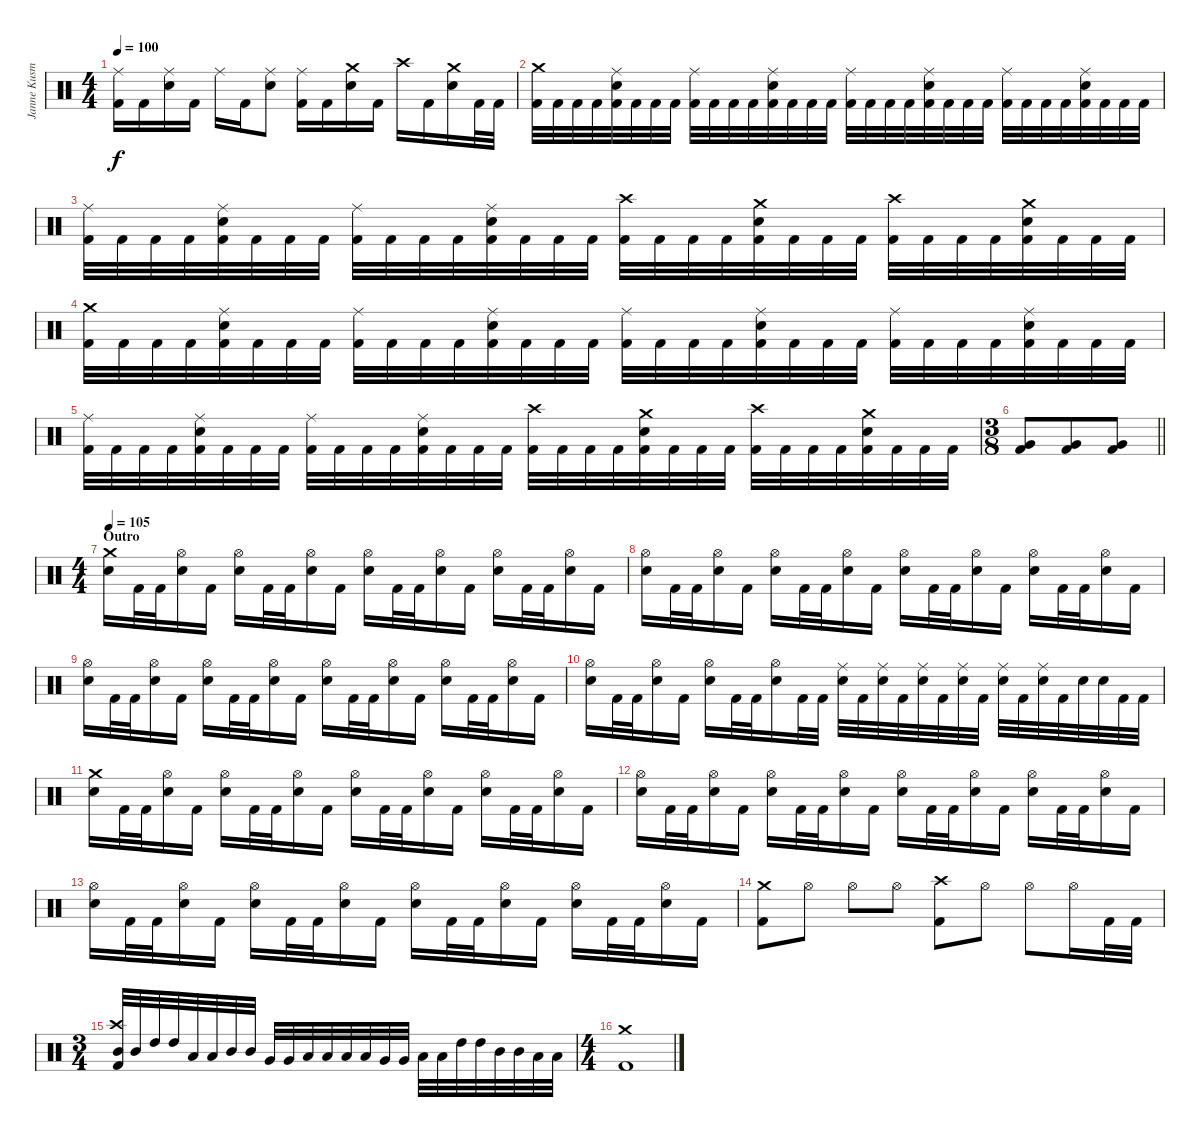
\track ("Janne Kusmin " "Janne Kusm") {instrument percussion}
\staff {score}
\articulation defaults
\ts (4 4)
\tempo 100
\clef neutral
\ks c
("Ride (middle)" "Kick (hit) 2").16{dy f} "Kick (hit) 2".16 ("Ride (middle)" "Electric Snare (hit)").16 "Kick (hit) 2".16 "Ride (middle)".16 "Kick (hit) 2".16 ("Ride (middle)" "Electric Snare (hit)").8 ("Ride (middle)" "Kick (hit) 2").16 "Kick (hit) 2".16 ("Crash medium (hit)" "Electric Snare (hit)").16 "Kick (hit) 2".16 "Crash high (hit)".16 "Kick (hit) 2".16 ("Crash medium (hit)" "Electric Snare (hit)").16 "Kick (hit) 2".32 "Kick (hit) 2".32 |
("Crash medium (hit)" "Kick (hit) 2").32 "Kick (hit) 2".32 "Kick (hit) 2".32 "Kick (hit) 2".32 ("Ride (middle)" "Electric Snare (hit)" "Kick (hit) 2").32 "Kick (hit) 2".32 "Kick (hit) 2".32 "Kick (hit) 2".32 ("Ride (middle)" "Kick (hit) 2").32 "Kick (hit) 2".32 "Kick (hit) 2".32 "Kick (hit) 2".32 ("Ride (middle)" "Electric Snare (hit)" "Kick (hit) 2").32 "Kick (hit) 2".32 "Kick (hit) 2".32 "Kick (hit) 2".32 ("Ride (middle)" "Kick (hit) 2").32 "Kick (hit) 2".32 "Kick (hit) 2".32 "Kick (hit) 2".32 ("Ride (middle)" "Electric Snare (hit)" "Kick (hit) 2").32 "Kick (hit) 2".32 "Kick (hit) 2".32 "Kick (hit) 2".32 ("Ride (middle)" "Kick (hit) 2").32 "Kick (hit) 2".32 "Kick (hit) 2".32 "Kick (hit) 2".32 ("Ride (middle)" "Electric Snare (hit)" "Kick (hit) 2").32 "Kick (hit) 2".32 "Kick (hit) 2".32 "Kick (hit) 2".32 |
("Ride (middle)" "Kick (hit) 2").32 "Kick (hit) 2".32 "Kick (hit) 2".32 "Kick (hit) 2".32 ("Ride (middle)" "Electric Snare (hit)" "Kick (hit) 2").32 "Kick (hit) 2".32 "Kick (hit) 2".32 "Kick (hit) 2".32 ("Ride (middle)" "Kick (hit) 2").32 "Kick (hit) 2".32 "Kick (hit) 2".32 "Kick (hit) 2".32 ("Ride (middle)" "Electric Snare (hit)" "Kick (hit) 2").32 "Kick (hit) 2".32 "Kick (hit) 2".32 "Kick (hit) 2".32 ("Crash high (hit)" "Kick (hit) 2").32 "Kick (hit) 2".32 "Kick (hit) 2".32 "Kick (hit) 2".32 ("Crash medium (hit)" "Electric Snare (hit)" "Kick (hit) 2").32 "Kick (hit) 2".32 "Kick (hit) 2".32 "Kick (hit) 2".32 ("Crash high (hit)" "Kick (hit) 2").32 "Kick (hit) 2".32 "Kick (hit) 2".32 "Kick (hit) 2".32 ("Crash medium (hit)" "Electric Snare (hit)" "Kick (hit) 2").32 "Kick (hit) 2".32 "Kick (hit) 2".32 "Kick (hit) 2".32 |
("Crash medium (hit)" "Kick (hit) 2").32 "Kick (hit) 2".32 "Kick (hit) 2".32 "Kick (hit) 2".32 ("Ride (middle)" "Electric Snare (hit)" "Kick (hit) 2").32 "Kick (hit) 2".32 "Kick (hit) 2".32 "Kick (hit) 2".32 ("Ride (middle)" "Kick (hit) 2").32 "Kick (hit) 2".32 "Kick (hit) 2".32 "Kick (hit) 2".32 ("Ride (middle)" "Electric Snare (hit)" "Kick (hit) 2").32 "Kick (hit) 2".32 "Kick (hit) 2".32 "Kick (hit) 2".32 ("Ride (middle)" "Kick (hit) 2").32 "Kick (hit) 2".32 "Kick (hit) 2".32 "Kick (hit) 2".32 ("Ride (middle)" "Electric Snare (hit)" "Kick (hit) 2").32 "Kick (hit) 2".32 "Kick (hit) 2".32 "Kick (hit) 2".32 ("Ride (middle)" "Kick (hit) 2").32 "Kick (hit) 2".32 "Kick (hit) 2".32 "Kick (hit) 2".32 ("Ride (middle)" "Electric Snare (hit)" "Kick (hit) 2").32 "Kick (hit) 2".32 "Kick (hit) 2".32 "Kick (hit) 2".32 |
("Ride (middle)" "Kick (hit) 2").32 "Kick (hit) 2".32 "Kick (hit) 2".32 "Kick (hit) 2".32 ("Ride (middle)" "Electric Snare (hit)" "Kick (hit) 2").32 "Kick (hit) 2".32 "Kick (hit) 2".32 "Kick (hit) 2".32 ("Ride (middle)" "Kick (hit) 2").32 "Kick (hit) 2".32 "Kick (hit) 2".32 "Kick (hit) 2".32 ("Ride (middle)" "Electric Snare (hit)" "Kick (hit) 2").32 "Kick (hit) 2".32 "Kick (hit) 2".32 "Kick (hit) 2".32 ("Crash high (hit)" "Kick (hit) 2").32 "Kick (hit) 2".32 "Kick (hit) 2".32 "Kick (hit) 2".32 ("Crash medium (hit)" "Electric Snare (hit)" "Kick (hit) 2").32 "Kick (hit) 2".32 "Kick (hit) 2".32 "Kick (hit) 2".32 ("Crash high (hit)" "Kick (hit) 2").32 "Kick (hit) 2".32 "Kick (hit) 2".32 "Kick (hit) 2".32 ("Crash medium (hit)" "Electric Snare (hit)" "Kick (hit) 2").32 "Kick (hit) 2".32 "Kick (hit) 2".32 "Kick (hit) 2".32 |
\ts (3 8)
\barLineRight lightlight
("Very Low Tom (hit)" "Kick (hit) 2").8 ("Very Low Tom (hit)" "Kick (hit) 2").8 ("Very Low Tom (hit)" "Kick (hit) 2").8 |
\ts (4 4)
\section ("" "Outro")
\tempo 105
("Crash medium (hit)" "Electric Snare (hit)").16 "Kick (hit) 2".32 "Kick (hit) 2".32 ("Hi-Hat (open)" "Electric Snare (hit)").16 "Kick (hit) 2".16 ("Hi-Hat (open)" "Electric Snare (hit)").16 "Kick (hit) 2".32 "Kick (hit) 2".32 ("Hi-Hat (open)" "Electric Snare (hit)").16 "Kick (hit) 2".16 ("Hi-Hat (open)" "Electric Snare (hit)").16 "Kick (hit) 2".32 "Kick (hit) 2".32 ("Hi-Hat (open)" "Electric Snare (hit)").16 "Kick (hit) 2".16 ("Hi-Hat (open)" "Electric Snare (hit)").16 "Kick (hit) 2".32 "Kick (hit) 2".32 ("Hi-Hat (open)" "Electric Snare (hit)").16 "Kick (hit) 2".16 |
("Hi-Hat (open)" "Electric Snare (hit)").16 "Kick (hit) 2".32 "Kick (hit) 2".32 ("Hi-Hat (open)" "Electric Snare (hit)").16 "Kick (hit) 2".16 ("Hi-Hat (open)" "Electric Snare (hit)").16 "Kick (hit) 2".32 "Kick (hit) 2".32 ("Hi-Hat (open)" "Electric Snare (hit)").16 "Kick (hit) 2".16 ("Hi-Hat (open)" "Electric Snare (hit)").16 "Kick (hit) 2".32 "Kick (hit) 2".32 ("Hi-Hat (open)" "Electric Snare (hit)").16 "Kick (hit) 2".16 ("Hi-Hat (open)" "Electric Snare (hit)").16 "Kick (hit) 2".32 "Kick (hit) 2".32 ("Hi-Hat (open)" "Electric Snare (hit)").16 "Kick (hit) 2".16 |
("Hi-Hat (open)" "Electric Snare (hit)").16 "Kick (hit) 2".32 "Kick (hit) 2".32 ("Hi-Hat (open)" "Electric Snare (hit)").16 "Kick (hit) 2".16 ("Hi-Hat (open)" "Electric Snare (hit)").16 "Kick (hit) 2".32 "Kick (hit) 2".32 ("Hi-Hat (open)" "Electric Snare (hit)").16 "Kick (hit) 2".16 ("Hi-Hat (open)" "Electric Snare (hit)").16 "Kick (hit) 2".32 "Kick (hit) 2".32 ("Hi-Hat (open)" "Electric Snare (hit)").16 "Kick (hit) 2".16 ("Hi-Hat (open)" "Electric Snare (hit)").16 "Kick (hit) 2".32 "Kick (hit) 2".32 ("Hi-Hat (open)" "Electric Snare (hit)").16 "Kick (hit) 2".16 |
("Hi-Hat (open)" "Electric Snare (hit)").16 "Kick (hit) 2".32 "Kick (hit) 2".32 ("Hi-Hat (open)" "Electric Snare (hit)").16 "Kick (hit) 2".16 ("Hi-Hat (open)" "Electric Snare (hit)").16 "Kick (hit) 2".32 "Kick (hit) 2".32 ("Hi-Hat (open)" "Electric Snare (hit)").16 "Kick (hit) 2".32 "Kick (hit) 2".32 ("Ride (middle)" "Electric Snare (hit)").32 "Kick (hit) 2".32 ("Ride (middle)" "Electric Snare (hit)").32 "Kick (hit) 2".32 ("Ride (middle)" "Electric Snare (hit)").32 "Kick (hit) 2".32 ("Ride (middle)" "Electric Snare (hit)").32 "Kick (hit) 2".32 ("Ride (middle)" "Electric Snare (hit)").32 "Kick (hit) 2".32 ("Ride (middle)" "Electric Snare (hit)").32 "Kick (hit) 2".32 "Electric Snare (hit)".32 "Electric Snare (hit)".32 "Kick (hit) 2".32 "Kick (hit) 2".32 |
("Crash medium (hit)" "Electric Snare (hit)").16 "Kick (hit) 2".32 "Kick (hit) 2".32 ("Hi-Hat (open)" "Electric Snare (hit)").16 "Kick (hit) 2".16 ("Hi-Hat (open)" "Electric Snare (hit)").16 "Kick (hit) 2".32 "Kick (hit) 2".32 ("Hi-Hat (open)" "Electric Snare (hit)").16 "Kick (hit) 2".16 ("Hi-Hat (open)" "Electric Snare (hit)").16 "Kick (hit) 2".32 "Kick (hit) 2".32 ("Hi-Hat (open)" "Electric Snare (hit)").16 "Kick (hit) 2".16 ("Hi-Hat (open)" "Electric Snare (hit)").16 "Kick (hit) 2".32 "Kick (hit) 2".32 ("Hi-Hat (open)" "Electric Snare (hit)").16 "Kick (hit) 2".16 |
("Hi-Hat (open)" "Electric Snare (hit)").16 "Kick (hit) 2".32 "Kick (hit) 2".32 ("Hi-Hat (open)" "Electric Snare (hit)").16 "Kick (hit) 2".16 ("Hi-Hat (open)" "Electric Snare (hit)").16 "Kick (hit) 2".32 "Kick (hit) 2".32 ("Hi-Hat (open)" "Electric Snare (hit)").16 "Kick (hit) 2".16 ("Hi-Hat (open)" "Electric Snare (hit)").16 "Kick (hit) 2".32 "Kick (hit) 2".32 ("Hi-Hat (open)" "Electric Snare (hit)").16 "Kick (hit) 2".16 ("Hi-Hat (open)" "Electric Snare (hit)").16 "Kick (hit) 2".32 "Kick (hit) 2".32 ("Hi-Hat (open)" "Electric Snare (hit)").16 "Kick (hit) 2".16 |
("Hi-Hat (open)" "Electric Snare (hit)").16 "Kick (hit) 2".32 "Kick (hit) 2".32 ("Hi-Hat (open)" "Electric Snare (hit)").16 "Kick (hit) 2".16 ("Hi-Hat (open)" "Electric Snare (hit)").16 "Kick (hit) 2".32 "Kick (hit) 2".32 ("Hi-Hat (open)" "Electric Snare (hit)").16 "Kick (hit) 2".16 ("Hi-Hat (open)" "Electric Snare (hit)").16 "Kick (hit) 2".32 "Kick (hit) 2".32 ("Hi-Hat (open)" "Electric Snare (hit)").16 "Kick (hit) 2".16 ("Hi-Hat (open)" "Electric Snare (hit)").16 "Kick (hit) 2".32 "Kick (hit) 2".32 ("Hi-Hat (open)" "Electric Snare (hit)").16 "Kick (hit) 2".16 |
("Crash medium (hit)" "Kick (hit) 2").8 "Hi-Hat (open)".8 "Hi-Hat (open)".8 "Hi-Hat (open)".8 ("Crash high (hit)" "Kick (hit) 2").8 "Hi-Hat (open)".8 "Hi-Hat (open)".8 "Hi-Hat (open)".16 "Kick (hit) 2".32 "Kick (hit) 2".32 |
\ts (3 4)
("Crash high (hit)" "Mid Tom (hit)" "Kick (hit) 2").32 "Mid Tom (hit)".32 "High Tom (hit)".32 "High Tom (hit)".32 "Low Floor Tom (hit)".32 "Low Floor Tom (hit)".32 "Mid Tom (hit)".32 "Mid Tom (hit)".32 "Very Low Tom (hit)".32 "Very Low Tom (hit)".32 "Low Floor Tom (hit)".32 "Low Floor Tom (hit)".32 "Low Tom (hit)".32 "Low Tom (hit)".32 "Very Low Tom (hit)".32 "Very Low Tom (hit)".32 "Low Floor Tom (hit)".32 "Low Floor Tom (hit)".32 "High Tom (hit)".32 "High Tom (hit)".32 "Mid Tom (hit)".32 "Mid Tom (hit)".32 "Low Tom (hit)".32 "Low Tom (hit)".32 |
\ts (4 4)
("Crash medium (hit)" "Kick (hit) 2").1
